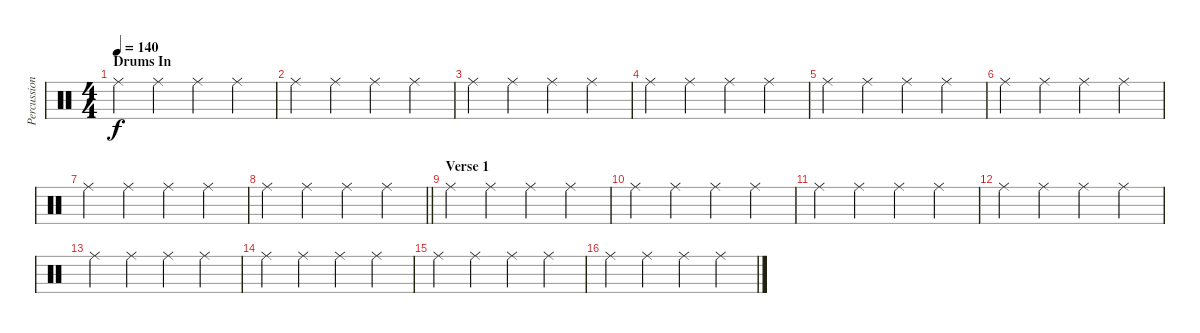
\track ("Percussion" "Percussion") {instrument percussion}
\staff {score}
\articulation defaults
\ts (4 4)
\section ("" "Drums In")
\tempo 140
\clef neutral
\ks c "Ride (middle)".4{dy f} "Ride (middle)".4 "Ride (middle)".4 "Ride (middle)".4
|
"Ride (middle)".4 "Ride (middle)".4 "Ride (middle)".4 "Ride (middle)".4 |
"Ride (middle)".4 "Ride (middle)".4 "Ride (middle)".4 "Ride (middle)".4 |
"Ride (middle)".4 "Ride (middle)".4 "Ride (middle)".4 "Ride (middle)".4 |
"Ride (middle)".4 "Ride (middle)".4 "Ride (middle)".4 "Ride (middle)".4 |
"Ride (middle)".4 "Ride (middle)".4 "Ride (middle)".4 "Ride (middle)".4 |
"Ride (middle)".4 "Ride (middle)".4 "Ride (middle)".4 "Ride (middle)".4 |
\barLineRight lightlight "Ride (middle)".4 "Ride (middle)".4 "Ride (middle)".4 "Ride (middle)".4
|
\section ("" "Verse 1")
"Ride (middle)".4 "Ride (middle)".4 "Ride (middle)".4 "Ride (middle)".4 |
"Ride (middle)".4 "Ride (middle)".4 "Ride (middle)".4 "Ride (middle)".4 |
"Ride (middle)".4 "Ride (middle)".4 "Ride (middle)".4 "Ride (middle)".4 |
"Ride (middle)".4 "Ride (middle)".4 "Ride (middle)".4 "Ride (middle)".4 |
"Ride (middle)".4 "Ride (middle)".4 "Ride (middle)".4 "Ride (middle)".4 |
"Ride (middle)".4 "Ride (middle)".4 "Ride (middle)".4 "Ride (middle)".4 |
"Ride (middle)".4 "Ride (middle)".4 "Ride (middle)".4 "Ride (middle)".4 |
"Ride (middle)".4 "Ride (middle)".4 "Ride (middle)".4 "Ride (middle)".4
